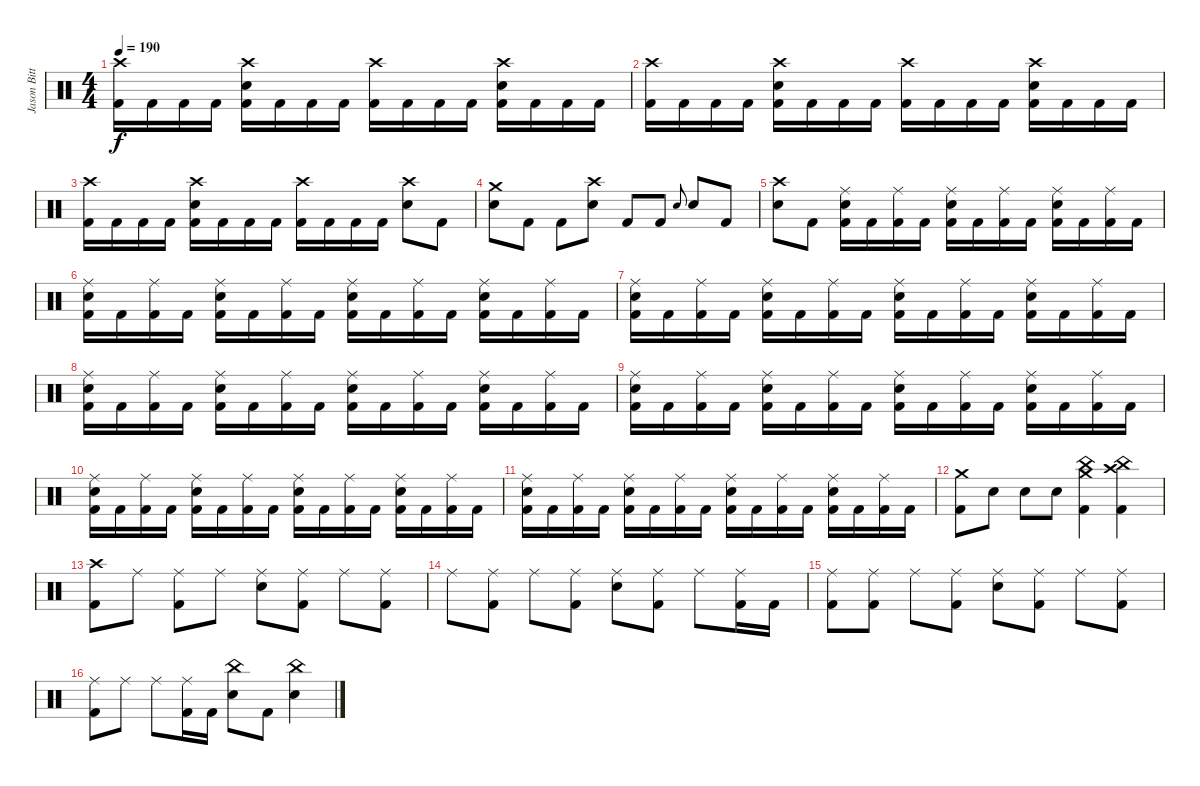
\track ("Jason Bittner" "Jason Bitt") {instrument percussion}
\staff {score}
\articulation defaults
\ts (4 4)
\tempo 190
\clef neutral
\ks c
("Crash high (hit)" "Kick (hit) 2").16{dy f} "Kick (hit) 2".16 "Kick (hit) 2".16 "Kick (hit) 2".16 ("Crash high (hit)" "Electric Snare (hit)" "Kick (hit) 2").16 "Kick (hit) 2".16 "Kick (hit) 2".16 "Kick (hit) 2".16 ("Crash high (hit)" "Kick (hit) 2").16 "Kick (hit) 2".16 "Kick (hit) 2".16 "Kick (hit) 2".16 ("Crash high (hit)" "Electric Snare (hit)" "Kick (hit) 2").16 "Kick (hit) 2".16 "Kick (hit) 2".16 "Kick (hit) 2".16 |
("Crash high (hit)" "Kick (hit) 2").16 "Kick (hit) 2".16 "Kick (hit) 2".16 "Kick (hit) 2".16 ("Crash high (hit)" "Electric Snare (hit)" "Kick (hit) 2").16 "Kick (hit) 2".16 "Kick (hit) 2".16 "Kick (hit) 2".16 ("Crash high (hit)" "Kick (hit) 2").16 "Kick (hit) 2".16 "Kick (hit) 2".16 "Kick (hit) 2".16 ("Crash high (hit)" "Electric Snare (hit)" "Kick (hit) 2").16 "Kick (hit) 2".16 "Kick (hit) 2".16 "Kick (hit) 2".16 |
("Crash high (hit)" "Kick (hit) 2").16 "Kick (hit) 2".16 "Kick (hit) 2".16 "Kick (hit) 2".16 ("Crash high (hit)" "Electric Snare (hit)" "Kick (hit) 2").16 "Kick (hit) 2".16 "Kick (hit) 2".16 "Kick (hit) 2".16 ("Crash high (hit)" "Kick (hit) 2").16 "Kick (hit) 2".16 "Kick (hit) 2".16 "Kick (hit) 2".16 ("Crash high (hit)" "Electric Snare (hit)").8 "Kick (hit) 2".8 |
("Crash medium (hit)" "Electric Snare (hit)").8 "Kick (hit) 2".8 "Kick (hit) 2".8 ("Crash high (hit)" "Electric Snare (hit)").8 "Kick (hit) 2".8 "Kick (hit) 2".8 "Electric Snare (hit)".8{gr onbeat} "Electric Snare (hit)".8 "Kick (hit) 2".8 |
("Crash high (hit)" "Electric Snare (hit)").8 "Kick (hit) 2".8 ("Ride (middle)" "Electric Snare (hit)" "Kick (hit) 2").16 "Kick (hit) 2".16 ("Ride (middle)" "Kick (hit) 2").16 "Kick (hit) 2".16 ("Ride (middle)" "Electric Snare (hit)" "Kick (hit) 2").16 "Kick (hit) 2".16 ("Ride (middle)" "Kick (hit) 2").16 "Kick (hit) 2".16 ("Ride (middle)" "Electric Snare (hit)" "Kick (hit) 2").16 "Kick (hit) 2".16 ("Ride (middle)" "Kick (hit) 2").16 "Kick (hit) 2".16 |
("Ride (middle)" "Electric Snare (hit)" "Kick (hit) 2").16 "Kick (hit) 2".16 ("Ride (middle)" "Kick (hit) 2").16 "Kick (hit) 2".16 ("Ride (middle)" "Electric Snare (hit)" "Kick (hit) 2").16 "Kick (hit) 2".16 ("Ride (middle)" "Kick (hit) 2").16 "Kick (hit) 2".16 ("Ride (middle)" "Electric Snare (hit)" "Kick (hit) 2").16 "Kick (hit) 2".16 ("Ride (middle)" "Kick (hit) 2").16 "Kick (hit) 2".16 ("Ride (middle)" "Electric Snare (hit)" "Kick (hit) 2").16 "Kick (hit) 2".16 ("Ride (middle)" "Kick (hit) 2").16 "Kick (hit) 2".16 |
("Ride (middle)" "Electric Snare (hit)" "Kick (hit) 2").16 "Kick (hit) 2".16 ("Ride (middle)" "Kick (hit) 2").16 "Kick (hit) 2".16 ("Ride (middle)" "Electric Snare (hit)" "Kick (hit) 2").16 "Kick (hit) 2".16 ("Ride (middle)" "Kick (hit) 2").16 "Kick (hit) 2".16 ("Ride (middle)" "Electric Snare (hit)" "Kick (hit) 2").16 "Kick (hit) 2".16 ("Ride (middle)" "Kick (hit) 2").16 "Kick (hit) 2".16 ("Ride (middle)" "Electric Snare (hit)" "Kick (hit) 2").16 "Kick (hit) 2".16 ("Ride (middle)" "Kick (hit) 2").16 "Kick (hit) 2".16 |
("Ride (middle)" "Electric Snare (hit)" "Kick (hit) 2").16 "Kick (hit) 2".16 ("Ride (middle)" "Kick (hit) 2").16 "Kick (hit) 2".16 ("Ride (middle)" "Electric Snare (hit)" "Kick (hit) 2").16 "Kick (hit) 2".16 ("Ride (middle)" "Kick (hit) 2").16 "Kick (hit) 2".16 ("Ride (middle)" "Electric Snare (hit)" "Kick (hit) 2").16 "Kick (hit) 2".16 ("Ride (middle)" "Kick (hit) 2").16 "Kick (hit) 2".16 ("Ride (middle)" "Electric Snare (hit)" "Kick (hit) 2").16 "Kick (hit) 2".16 ("Ride (middle)" "Kick (hit) 2").16 "Kick (hit) 2".16 |
("Ride (middle)" "Electric Snare (hit)" "Kick (hit) 2").16 "Kick (hit) 2".16 ("Ride (middle)" "Kick (hit) 2").16 "Kick (hit) 2".16 ("Ride (middle)" "Electric Snare (hit)" "Kick (hit) 2").16 "Kick (hit) 2".16 ("Ride (middle)" "Kick (hit) 2").16 "Kick (hit) 2".16 ("Ride (middle)" "Electric Snare (hit)" "Kick (hit) 2").16 "Kick (hit) 2".16 ("Ride (middle)" "Kick (hit) 2").16 "Kick (hit) 2".16 ("Ride (middle)" "Electric Snare (hit)" "Kick (hit) 2").16 "Kick (hit) 2".16 ("Ride (middle)" "Kick (hit) 2").16 "Kick (hit) 2".16 |
("Ride (middle)" "Electric Snare (hit)" "Kick (hit) 2").16 "Kick (hit) 2".16 ("Ride (middle)" "Kick (hit) 2").16 "Kick (hit) 2".16 ("Ride (middle)" "Electric Snare (hit)" "Kick (hit) 2").16 "Kick (hit) 2".16 ("Ride (middle)" "Kick (hit) 2").16 "Kick (hit) 2".16 ("Ride (middle)" "Electric Snare (hit)" "Kick (hit) 2").16 "Kick (hit) 2".16 ("Ride (middle)" "Kick (hit) 2").16 "Kick (hit) 2".16 ("Ride (middle)" "Electric Snare (hit)" "Kick (hit) 2").16 "Kick (hit) 2".16 ("Ride (middle)" "Kick (hit) 2").16 "Kick (hit) 2".16 |
("Ride (middle)" "Electric Snare (hit)" "Kick (hit) 2").16 "Kick (hit) 2".16 ("Ride (middle)" "Kick (hit) 2").16 "Kick (hit) 2".16 ("Ride (middle)" "Electric Snare (hit)" "Kick (hit) 2").16 "Kick (hit) 2".16 ("Ride (middle)" "Kick (hit) 2").16 "Kick (hit) 2".16 ("Ride (middle)" "Electric Snare (hit)" "Kick (hit) 2").16 "Kick (hit) 2".16 ("Ride (middle)" "Kick (hit) 2").16 "Kick (hit) 2".16 ("Ride (middle)" "Electric Snare (hit)" "Kick (hit) 2").16 "Kick (hit) 2".16 ("Ride (middle)" "Kick (hit) 2").16 "Kick (hit) 2".16 |
("Crash medium (hit)" "Kick (hit) 2").8 "Electric Snare (hit)".8 "Electric Snare (hit)".8 "Electric Snare (hit)".8 ("China (hit)" "Crash medium (hit)" "Kick (hit) 2").4 ("China (hit)" "Crash high (hit)" "Kick (hit) 2").4 |
("Crash high (hit)" "Kick (hit) 2").8 "Ride (middle)".8 ("Ride (middle)" "Kick (hit) 2").8 "Ride (middle)".8 ("Ride (middle)" "Electric Snare (hit)").8 ("Ride (middle)" "Kick (hit) 2").8 "Ride (middle)".8 ("Ride (middle)" "Kick (hit) 2").8 |
"Ride (middle)".8 ("Ride (middle)" "Kick (hit) 2").8 "Ride (middle)".8 ("Ride (middle)" "Kick (hit) 2").8 ("Ride (middle)" "Electric Snare (hit)").8 ("Ride (middle)" "Kick (hit) 2").8 "Ride (middle)".8 ("Ride (middle)" "Kick (hit) 2").16 "Kick (hit) 2".16 |
("Ride (middle)" "Kick (hit) 2").8 ("Ride (middle)" "Kick (hit) 2").8 "Ride (middle)".8 ("Ride (middle)" "Kick (hit) 2").8 ("Ride (middle)" "Electric Snare (hit)").8 ("Ride (middle)" "Kick (hit) 2").8 "Ride (middle)".8 ("Ride (middle)" "Kick (hit) 2").8 |
("Ride (middle)" "Kick (hit) 2").8 "Ride (middle)".8 "Ride (middle)".8 ("Ride (middle)" "Kick (hit) 2").16 "Kick (hit) 2".16 ("China (hit)" "Electric Snare (hit)").8 "Kick (hit) 2".8 ("China (hit)" "Electric Snare (hit)").4
